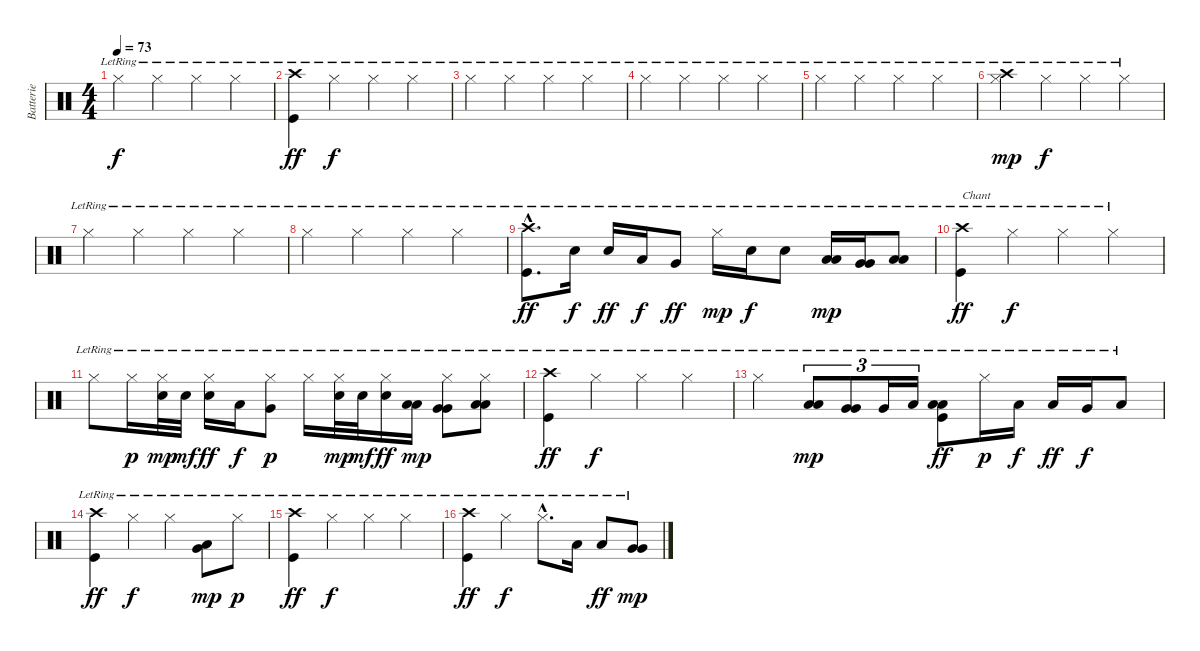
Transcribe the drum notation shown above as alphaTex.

\track ("Batterie" "Batterie") {instrument percussion}
\staff {score}
\articulation defaults
\ts (4 4)
\tempo 73
\clef neutral
\ks c "Hi-Hat (closed)"{lr}.4{dy f} "Hi-Hat (closed)"{lr}.4 "Hi-Hat (closed)"{lr}.4 "Hi-Hat (closed)"{lr}.4
|
("Crash high (hit)"{lr} "Kick (hit)"{lr}).4{dy ff} "Hi-Hat (closed)"{lr}.4{dy f} "Hi-Hat (closed)"{lr}.4 "Hi-Hat (closed)"{lr}.4 |
"Hi-Hat (closed)"{lr}.4 "Hi-Hat (closed)"{lr}.4 "Hi-Hat (closed)"{lr}.4 "Hi-Hat (closed)"{lr}.4 |
"Hi-Hat (closed)"{lr}.4 "Hi-Hat (closed)"{lr}.4 "Hi-Hat (closed)"{lr}.4 "Hi-Hat (closed)"{lr}.4 |
"Hi-Hat (closed)"{lr}.4 "Hi-Hat (closed)"{lr}.4 "Hi-Hat (closed)"{lr}.4 "Hi-Hat (closed)"{lr}.4 |
("Crash high (hit)"{lr} "Hi-Hat (closed)"{lr}).4{dy mp} "Hi-Hat (closed)"{lr}.4{dy f} "Hi-Hat (closed)"{lr}.4 "Hi-Hat (closed)"{lr}.4 |
"Hi-Hat (closed)"{lr}.4 "Hi-Hat (closed)"{lr}.4 "Hi-Hat (closed)"{lr}.4 "Hi-Hat (closed)"{lr}.4 |
"Hi-Hat (closed)"{lr}.4 "Hi-Hat (closed)"{lr}.4 "Hi-Hat (closed)"{lr}.4 "Hi-Hat (closed)"{lr}.4 |
("Crash high (hit)"{hac lr} "Kick (hit)"{hac lr}).8{d dy ff} "Snare (hit) 2"{lr}.16{dy f} "Snare (hit) 2"{lr}.16{dy ff} "Low Tom (hit)"{lr}.16{dy f} "Very Low Tom (hit)"{lr}.8{dy ff} "Hi-Hat (closed)"{lr}.16{dy mp} "Snare (hit) 2"{lr}.16{dy f} "Snare (hit) 2"{lr}.8 ("Low Tom (hit)"{lr} "Low Tom (hit)"{lr}).16{bu 60 dy mp} ("Very Low Tom (hit)"{lr} "Very Low Tom (hit)"{lr}).16{bu 60} ("Low Floor Tom (hit)"{lr} "Low Floor Tom (hit)"{lr}).8{bu 60} |
("Crash high (hit)"{lr} "Kick (hit)"{lr}).4{txt "Chant" dy ff} "Hi-Hat (closed)"{lr}.4{dy f} "Hi-Hat (closed)"{lr}.4 "Hi-Hat (closed)"{lr}.4 |
"Hi-Hat (closed)"{lr}.8 "Hi-Hat (closed)"{lr}.16{dy p} ("Hi-Hat (closed)"{lr} "Snare (hit) 2"{lr}).32{dy mp} "Snare (hit) 2"{lr}.32{dy mf} ("Hi-Hat (closed)"{lr} "Snare (hit) 2"{lr}).16{dy ff} "Low Tom (hit)"{lr}.16{dy f} ("Hi-Hat (closed)"{lr} "Very Low Tom (hit)"{lr}).8{dy p} "Hi-Hat (closed)"{lr}.16 ("Hi-Hat (closed)"{lr} "Snare (hit) 2"{lr}).32{dy mp} "Snare (hit) 2"{lr}.32{dy mf} ("Hi-Hat (closed)"{lr} "Snare (hit) 2"{lr}).16{dy ff} ("Low Tom (hit)"{lr} "Low Tom (hit)"{lr}).16{bu 60 dy mp} ("Hi-Hat (closed)"{lr} "Very Low Tom (hit)"{lr} "Very Low Tom (hit)"{lr}).8{bu 60} ("Hi-Hat (closed)"{lr} "Low Floor Tom (hit)"{lr} "Low Floor Tom (hit)"{lr}).8{bu 60} |
("Crash high (hit)"{lr} "Kick (hit)"{lr}).4{dy ff} "Hi-Hat (closed)"{lr}.4{dy f} "Hi-Hat (closed)"{lr}.4 "Hi-Hat (closed)"{lr}.4 |
"Hi-Hat (closed)"{lr}.4 ("Low Tom (hit)"{lr} "Low Tom (hit)"{lr}).8{tu (3 2) bu 60 dy mp} ("Very Low Tom (hit)"{lr} "Very Low Tom (hit)"{lr}).8{tu (3 2) bu 60} "Very Low Tom (hit)"{lr}.16{tu (3 2)} "Low Floor Tom (hit)"{lr}.16{tu (3 2)} ("Low Floor Tom (hit)"{lr} "Low Floor Tom (hit)"{lr} "Kick (hit)"{lr}).8{bu 60 dy ff} "Hi-Hat (closed)"{lr}.16{dy p} "Low Tom (hit)"{lr}.16{dy f} "Low Tom (hit)"{lr}.16{dy ff} "Very Low Tom (hit)"{lr}.16{dy f} "Low Floor Tom (hit)"{lr}.8 |
("Crash high (hit)"{lr} "Kick (hit)"{lr}).4{dy ff} "Hi-Hat (closed)"{lr}.4{dy f} "Hi-Hat (closed)"{lr}.4 ("Very Low Tom (hit)"{lr} "Low Tom (hit)"{lr}).8{bu 60 dy mp} "Hi-Hat (closed)"{lr}.8{dy p} |
("Crash high (hit)"{lr} "Kick (hit)"{lr}).4{dy ff} "Hi-Hat (closed)"{lr}.4{dy f} "Hi-Hat (closed)"{lr}.4 "Hi-Hat (closed)"{lr}.4 |
("Crash high (hit)"{lr} "Kick (hit)"{lr}).4{dy ff} "Hi-Hat (closed)"{lr}.4{dy f} "Hi-Hat (closed)"{hac lr}.8{d} "Low Tom (hit)"{lr}.16 "Low Tom (hit)"{lr}.8{dy ff} ("Very Low Tom (hit)"{lr} "Very Low Tom (hit)"{lr}).8{bu 60 dy mp}
